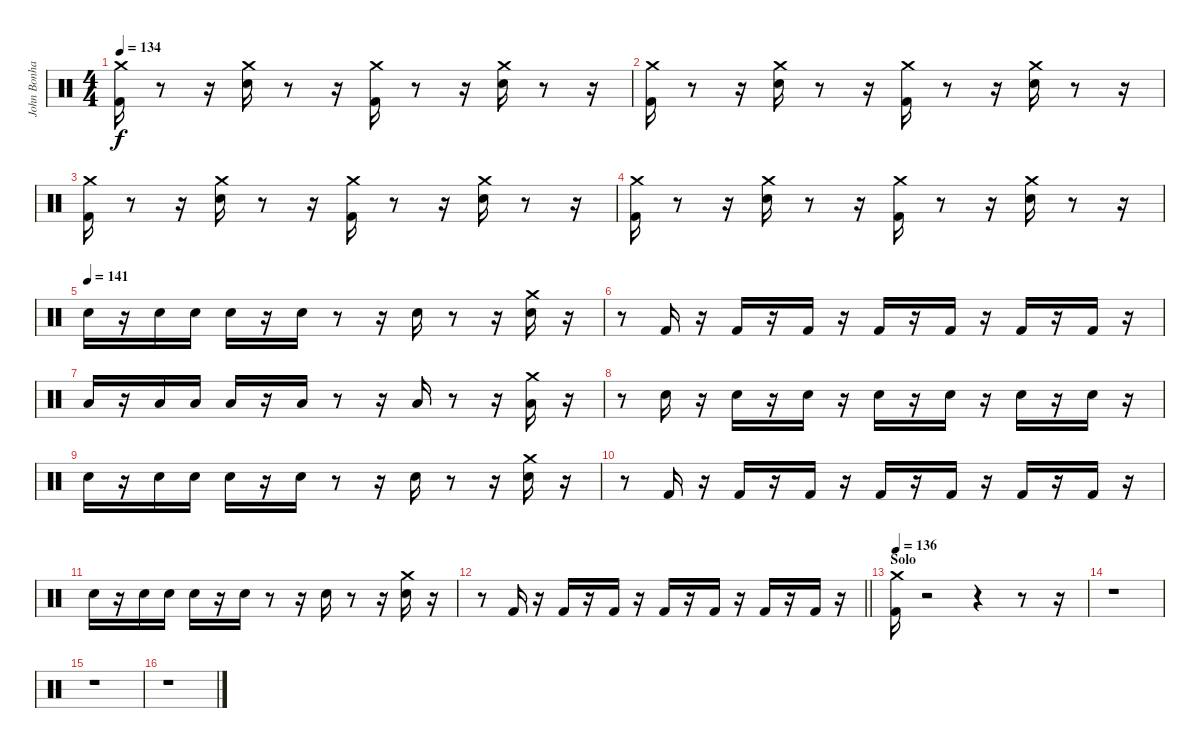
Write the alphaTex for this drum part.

\track ("John Bonham" "John Bonha") {instrument percussion}
\staff {score}
\articulation defaults
\ts (4 4)
\tempo 134
\clef neutral
\ks aminor
("Kick (hit) 2" "Crash medium (hit)").16{dy f} r.8 r.16 ("Electric Snare (hit)" "Crash medium (hit)").16 r.8 r.16 ("Kick (hit) 2" "Crash medium (hit)").16 r.8 r.16 ("Electric Snare (hit)" "Crash medium (hit)").16 r.8 r.16 |
("Kick (hit) 2" "Crash medium (hit)").16 r.8 r.16 ("Electric Snare (hit)" "Crash medium (hit)").16 r.8 r.16 ("Kick (hit) 2" "Crash medium (hit)").16 r.8 r.16 ("Electric Snare (hit)" "Crash medium (hit)").16 r.8 r.16 |
("Kick (hit) 2" "Crash medium (hit)").16 r.8 r.16 ("Electric Snare (hit)" "Crash medium (hit)").16 r.8 r.16 ("Kick (hit) 2" "Crash medium (hit)").16 r.8 r.16 ("Electric Snare (hit)" "Crash medium (hit)").16 r.8 r.16 |
("Kick (hit) 2" "Crash medium (hit)").16 r.8 r.16 ("Electric Snare (hit)" "Crash medium (hit)").16 r.8 r.16 ("Kick (hit) 2" "Crash medium (hit)").16 r.8 r.16 ("Electric Snare (hit)" "Crash medium (hit)").16 r.8 r.16 |
\tempo (141)
"Electric Snare (hit)".16 r.16 "Electric Snare (hit)".16 "Electric Snare (hit)".16 "Electric Snare (hit)".16 r.16 "Electric Snare (hit)".16 r.8 r.16 "Electric Snare (hit)".16 r.8 r.16 ("Electric Snare (hit)" "Crash medium (hit)").16 r.16 |
r.8 "Kick (hit) 2".16 r.16 "Kick (hit) 2".16 r.16 "Kick (hit) 2".16 r.16 "Kick (hit) 2".16 r.16 "Kick (hit) 2".16 r.16 "Kick (hit) 2".16 r.16 "Kick (hit) 2".16 r.16 |
"Low Floor Tom (hit)".16 r.16 "Low Floor Tom (hit)".16 "Low Floor Tom (hit)".16 "Low Floor Tom (hit)".16 r.16 "Low Floor Tom (hit)".16 r.8 r.16 "Low Floor Tom (hit)".16 r.8 r.16 ("Low Floor Tom (hit)" "Crash medium (hit)").16 r.16 |
r.8 "Electric Snare (hit)".16 r.16 "Electric Snare (hit)".16 r.16 "Electric Snare (hit)".16 r.16 "Electric Snare (hit)".16 r.16 "Electric Snare (hit)".16 r.16 "Electric Snare (hit)".16 r.16 "Electric Snare (hit)".16 r.16 |
"Electric Snare (hit)".16 r.16 "Electric Snare (hit)".16 "Electric Snare (hit)".16 "Electric Snare (hit)".16 r.16 "Electric Snare (hit)".16 r.8 r.16 "Electric Snare (hit)".16 r.8 r.16 ("Electric Snare (hit)" "Crash medium (hit)").16 r.16 |
r.8 "Kick (hit) 2".16 r.16 "Kick (hit) 2".16 r.16 "Kick (hit) 2".16 r.16 "Kick (hit) 2".16 r.16 "Kick (hit) 2".16 r.16 "Kick (hit) 2".16 r.16 "Kick (hit) 2".16 r.16 |
"Electric Snare (hit)".16 r.16 "Electric Snare (hit)".16 "Electric Snare (hit)".16 "Electric Snare (hit)".16 r.16 "Electric Snare (hit)".16 r.8 r.16 "Electric Snare (hit)".16 r.8 r.16 ("Electric Snare (hit)" "Crash medium (hit)").16 r.16 |
\barLineRight lightlight
r.8 "Kick (hit) 2".16 r.16 "Kick (hit) 2".16 r.16 "Kick (hit) 2".16 r.16 "Kick (hit) 2".16 r.16 "Kick (hit) 2".16 r.16 "Kick (hit) 2".16 r.16 "Kick (hit) 2".16 r.16 |
\section ("" "Solo")
\tempo 136
("Kick (hit) 2" "Crash medium (hit)").16 r.2 r.4 r.8 r.16 |
r.1 |
r.1 |
r.1
